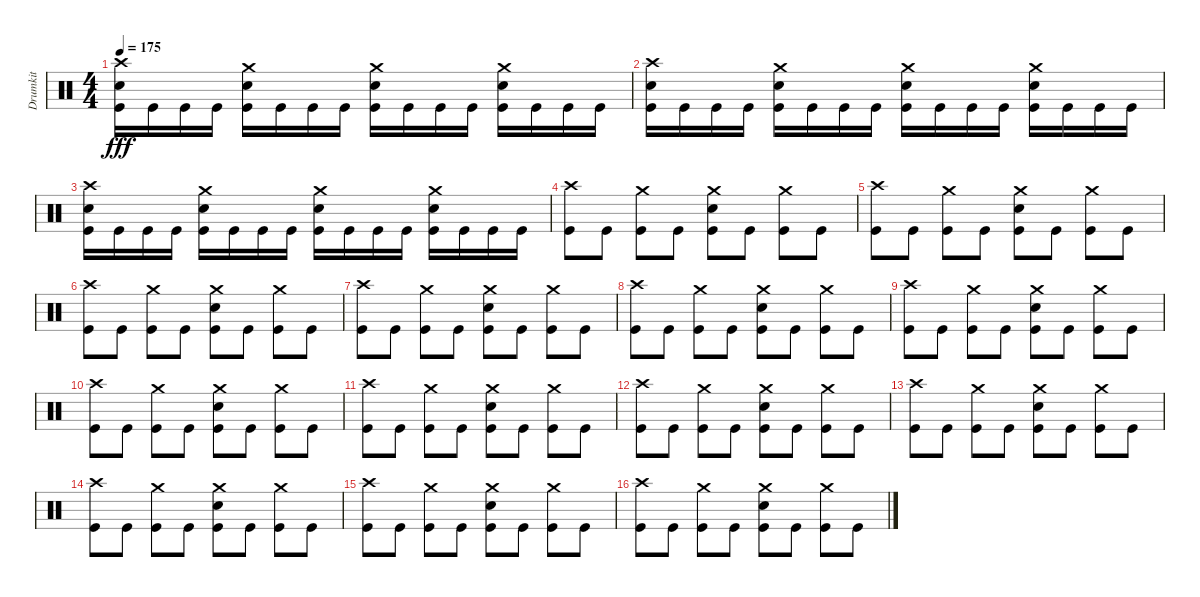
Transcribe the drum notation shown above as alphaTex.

\track ("Drumkit" "Drumkit") {instrument percussion}
\staff {score}
\articulation defaults
\ts (4 4)
\tempo 175
\clef neutral
\ks c
("Crash high (hit)" "Snare (hit) 2" "Kick (hit)").16{dy fff} "Kick (hit)".16 "Kick (hit)".16 "Kick (hit)".16 ("Crash medium (hit)" "Snare (hit) 2" "Kick (hit)").16 "Kick (hit)".16 "Kick (hit)".16 "Kick (hit)".16 ("Crash medium (hit)" "Snare (hit) 2" "Kick (hit)").16 "Kick (hit)".16 "Kick (hit)".16 "Kick (hit)".16 ("Crash medium (hit)" "Snare (hit) 2" "Kick (hit)").16 "Kick (hit)".16 "Kick (hit)".16 "Kick (hit)".16 |
("Crash high (hit)" "Snare (hit) 2" "Kick (hit)").16 "Kick (hit)".16 "Kick (hit)".16 "Kick (hit)".16 ("Crash medium (hit)" "Snare (hit) 2" "Kick (hit)").16 "Kick (hit)".16 "Kick (hit)".16 "Kick (hit)".16 ("Crash medium (hit)" "Snare (hit) 2" "Kick (hit)").16 "Kick (hit)".16 "Kick (hit)".16 "Kick (hit)".16 ("Crash medium (hit)" "Snare (hit) 2" "Kick (hit)").16 "Kick (hit)".16 "Kick (hit)".16 "Kick (hit)".16 |
("Crash high (hit)" "Snare (hit) 2" "Kick (hit)").16 "Kick (hit)".16 "Kick (hit)".16 "Kick (hit)".16 ("Crash medium (hit)" "Snare (hit) 2" "Kick (hit)").16 "Kick (hit)".16 "Kick (hit)".16 "Kick (hit)".16 ("Crash medium (hit)" "Snare (hit) 2" "Kick (hit)").16 "Kick (hit)".16 "Kick (hit)".16 "Kick (hit)".16 ("Crash medium (hit)" "Snare (hit) 2" "Kick (hit)").16 "Kick (hit)".16 "Kick (hit)".16 "Kick (hit)".16 |
("Crash high (hit)" "Kick (hit)").8 "Kick (hit)".8 ("Crash medium (hit)" "Kick (hit)").8 "Kick (hit)".8 ("Crash medium (hit)" "Snare (hit) 2" "Kick (hit)").8 "Kick (hit)".8 ("Crash medium (hit)" "Kick (hit)").8 "Kick (hit)".8 |
("Crash high (hit)" "Kick (hit)").8 "Kick (hit)".8 ("Crash medium (hit)" "Kick (hit)").8 "Kick (hit)".8 ("Crash medium (hit)" "Snare (hit) 2" "Kick (hit)").8 "Kick (hit)".8 ("Crash medium (hit)" "Kick (hit)").8 "Kick (hit)".8 |
("Crash high (hit)" "Kick (hit)").8 "Kick (hit)".8 ("Crash medium (hit)" "Kick (hit)").8 "Kick (hit)".8 ("Crash medium (hit)" "Snare (hit) 2" "Kick (hit)").8 "Kick (hit)".8 ("Crash medium (hit)" "Kick (hit)").8 "Kick (hit)".8 |
("Crash high (hit)" "Kick (hit)").8 "Kick (hit)".8 ("Crash medium (hit)" "Kick (hit)").8 "Kick (hit)".8 ("Crash medium (hit)" "Snare (hit) 2" "Kick (hit)").8 "Kick (hit)".8 ("Crash medium (hit)" "Kick (hit)").8 "Kick (hit)".8 |
("Crash high (hit)" "Kick (hit)").8 "Kick (hit)".8 ("Crash medium (hit)" "Kick (hit)").8 "Kick (hit)".8 ("Crash medium (hit)" "Snare (hit) 2" "Kick (hit)").8 "Kick (hit)".8 ("Crash medium (hit)" "Kick (hit)").8 "Kick (hit)".8 |
("Crash high (hit)" "Kick (hit)").8 "Kick (hit)".8 ("Crash medium (hit)" "Kick (hit)").8 "Kick (hit)".8 ("Crash medium (hit)" "Snare (hit) 2" "Kick (hit)").8 "Kick (hit)".8 ("Crash medium (hit)" "Kick (hit)").8 "Kick (hit)".8 |
("Crash high (hit)" "Kick (hit)").8 "Kick (hit)".8 ("Crash medium (hit)" "Kick (hit)").8 "Kick (hit)".8 ("Crash medium (hit)" "Snare (hit) 2" "Kick (hit)").8 "Kick (hit)".8 ("Crash medium (hit)" "Kick (hit)").8 "Kick (hit)".8 |
("Crash high (hit)" "Kick (hit)").8 "Kick (hit)".8 ("Crash medium (hit)" "Kick (hit)").8 "Kick (hit)".8 ("Crash medium (hit)" "Snare (hit) 2" "Kick (hit)").8 "Kick (hit)".8 ("Crash medium (hit)" "Kick (hit)").8 "Kick (hit)".8 |
("Crash high (hit)" "Kick (hit)").8 "Kick (hit)".8 ("Crash medium (hit)" "Kick (hit)").8 "Kick (hit)".8 ("Crash medium (hit)" "Snare (hit) 2" "Kick (hit)").8 "Kick (hit)".8 ("Crash medium (hit)" "Kick (hit)").8 "Kick (hit)".8 |
("Crash high (hit)" "Kick (hit)").8 "Kick (hit)".8 ("Crash medium (hit)" "Kick (hit)").8 "Kick (hit)".8 ("Crash medium (hit)" "Snare (hit) 2" "Kick (hit)").8 "Kick (hit)".8 ("Crash medium (hit)" "Kick (hit)").8 "Kick (hit)".8 |
("Crash high (hit)" "Kick (hit)").8 "Kick (hit)".8 ("Crash medium (hit)" "Kick (hit)").8 "Kick (hit)".8 ("Crash medium (hit)" "Snare (hit) 2" "Kick (hit)").8 "Kick (hit)".8 ("Crash medium (hit)" "Kick (hit)").8 "Kick (hit)".8 |
("Crash high (hit)" "Kick (hit)").8 "Kick (hit)".8 ("Crash medium (hit)" "Kick (hit)").8 "Kick (hit)".8 ("Crash medium (hit)" "Snare (hit) 2" "Kick (hit)").8 "Kick (hit)".8 ("Crash medium (hit)" "Kick (hit)").8 "Kick (hit)".8 |
("Crash high (hit)" "Kick (hit)").8 "Kick (hit)".8 ("Crash medium (hit)" "Kick (hit)").8 "Kick (hit)".8 ("Crash medium (hit)" "Snare (hit) 2" "Kick (hit)").8 "Kick (hit)".8 ("Crash medium (hit)" "Kick (hit)").8 "Kick (hit)".8
